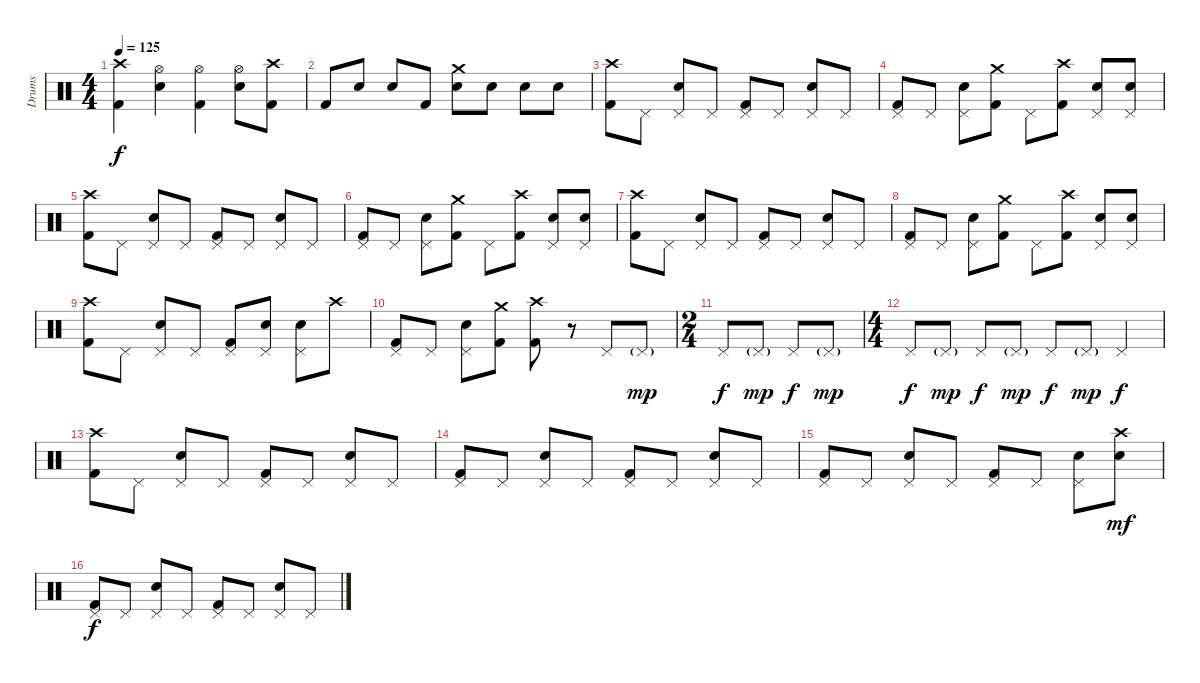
\track ("Drums" "Drums") {instrument percussion}
\staff {score}
\articulation defaults
\ts (4 4)
\tempo 125
\clef neutral
\ks c
("Crash high (hit)" "Kick (hit) 2").4{dy f} ("Hi-Hat (open)" "Snare (hit) 2").4 ("Hi-Hat (open)" "Kick (hit) 2").4 ("Hi-Hat (open)" "Snare (hit) 2").8 ("Crash high (hit)" "Kick (hit) 2").8 |
"Kick (hit) 2".8 "Snare (hit) 2".8 "Snare (hit) 2".8 "Kick (hit) 2".8 ("Crash medium (hit)" "Snare (hit) 2").8 "Snare (hit) 2".8 "Snare (hit) 2".8 "Snare (hit) 2".8 |
("Crash high (hit)" "Kick (hit) 2").8 "Pedal Hi-Hat (hit)".8 ("Pedal Hi-Hat (hit)" "Snare (hit) 2").8 "Pedal Hi-Hat (hit)".8 ("Pedal Hi-Hat (hit)" "Kick (hit) 2").8 "Pedal Hi-Hat (hit)".8 ("Pedal Hi-Hat (hit)" "Snare (hit) 2").8 "Pedal Hi-Hat (hit)".8 |
("Pedal Hi-Hat (hit)" "Kick (hit) 2").8 "Pedal Hi-Hat (hit)".8 ("Pedal Hi-Hat (hit)" "Snare (hit) 2").8 ("Crash medium (hit)" "Kick (hit) 2").8 "Pedal Hi-Hat (hit)".8 ("Crash high (hit)" "Kick (hit) 2").8 ("Pedal Hi-Hat (hit)" "Snare (hit) 2").8 ("Pedal Hi-Hat (hit)" "Snare (hit) 2").8 |
("Crash high (hit)" "Kick (hit) 2").8 "Pedal Hi-Hat (hit)".8 ("Pedal Hi-Hat (hit)" "Snare (hit) 2").8 "Pedal Hi-Hat (hit)".8 ("Pedal Hi-Hat (hit)" "Kick (hit) 2").8 "Pedal Hi-Hat (hit)".8 ("Pedal Hi-Hat (hit)" "Snare (hit) 2").8 "Pedal Hi-Hat (hit)".8 |
("Pedal Hi-Hat (hit)" "Kick (hit) 2").8 "Pedal Hi-Hat (hit)".8 ("Pedal Hi-Hat (hit)" "Snare (hit) 2").8 ("Crash medium (hit)" "Kick (hit) 2").8 "Pedal Hi-Hat (hit)".8 ("Crash high (hit)" "Kick (hit) 2").8 ("Pedal Hi-Hat (hit)" "Snare (hit) 2").8 ("Pedal Hi-Hat (hit)" "Snare (hit) 2").8 |
("Crash high (hit)" "Kick (hit) 2").8 "Pedal Hi-Hat (hit)".8 ("Pedal Hi-Hat (hit)" "Snare (hit) 2").8 "Pedal Hi-Hat (hit)".8 ("Pedal Hi-Hat (hit)" "Kick (hit) 2").8 "Pedal Hi-Hat (hit)".8 ("Pedal Hi-Hat (hit)" "Snare (hit) 2").8 "Pedal Hi-Hat (hit)".8 |
("Pedal Hi-Hat (hit)" "Kick (hit) 2").8 "Pedal Hi-Hat (hit)".8 ("Pedal Hi-Hat (hit)" "Snare (hit) 2").8 ("Crash medium (hit)" "Kick (hit) 2").8 "Pedal Hi-Hat (hit)".8 ("Crash high (hit)" "Kick (hit) 2").8 ("Pedal Hi-Hat (hit)" "Snare (hit) 2").8 ("Pedal Hi-Hat (hit)" "Snare (hit) 2").8 |
("Crash high (hit)" "Kick (hit) 2").8 "Pedal Hi-Hat (hit)".8 ("Pedal Hi-Hat (hit)" "Snare (hit) 2").8 "Pedal Hi-Hat (hit)".8 ("Pedal Hi-Hat (hit)" "Kick (hit) 2").8 ("Pedal Hi-Hat (hit)" "Snare (hit) 2").8 ("Pedal Hi-Hat (hit)" "Snare (hit) 2").8 "Crash high (hit)".8 |
("Pedal Hi-Hat (hit)" "Kick (hit) 2").8 "Pedal Hi-Hat (hit)".8 ("Pedal Hi-Hat (hit)" "Snare (hit) 2").8 ("Crash medium (hit)" "Kick (hit) 2").8 ("Crash high (hit)" "Kick (hit) 2").8 r.8 "Pedal Hi-Hat (hit)".8 "Pedal Hi-Hat (hit)"{g}.8{dy mp} |
\ts (2 4)
"Pedal Hi-Hat (hit)".8{dy f} "Pedal Hi-Hat (hit)"{g}.8{dy mp} "Pedal Hi-Hat (hit)".8{dy f} "Pedal Hi-Hat (hit)"{g}.8{dy mp} |
\ts (4 4)
"Pedal Hi-Hat (hit)".8{dy f} "Pedal Hi-Hat (hit)"{g}.8{dy mp} "Pedal Hi-Hat (hit)".8{dy f} "Pedal Hi-Hat (hit)"{g}.8{dy mp} "Pedal Hi-Hat (hit)".8{dy f} "Pedal Hi-Hat (hit)"{g}.8{dy mp} "Pedal Hi-Hat (hit)".4{dy f} |
("Crash high (hit)" "Kick (hit) 2").8 "Pedal Hi-Hat (hit)".8 ("Pedal Hi-Hat (hit)" "Snare (hit) 2").8 "Pedal Hi-Hat (hit)".8 ("Pedal Hi-Hat (hit)" "Kick (hit) 2").8 "Pedal Hi-Hat (hit)".8 ("Pedal Hi-Hat (hit)" "Snare (hit) 2").8 "Pedal Hi-Hat (hit)".8 |
("Pedal Hi-Hat (hit)" "Kick (hit) 2").8 "Pedal Hi-Hat (hit)".8 ("Pedal Hi-Hat (hit)" "Snare (hit) 2").8 "Pedal Hi-Hat (hit)".8 ("Pedal Hi-Hat (hit)" "Kick (hit) 2").8 "Pedal Hi-Hat (hit)".8 ("Pedal Hi-Hat (hit)" "Snare (hit) 2").8 "Pedal Hi-Hat (hit)".8 |
("Pedal Hi-Hat (hit)" "Kick (hit) 2").8 "Pedal Hi-Hat (hit)".8 ("Pedal Hi-Hat (hit)" "Snare (hit) 2").8 "Pedal Hi-Hat (hit)".8 ("Pedal Hi-Hat (hit)" "Kick (hit) 2").8 "Pedal Hi-Hat (hit)".8 ("Pedal Hi-Hat (hit)" "Snare (hit) 2").8 ("Crash high (hit)" "Snare (hit) 2").8{dy mf} |
("Pedal Hi-Hat (hit)" "Kick (hit) 2").8{dy f} "Pedal Hi-Hat (hit)".8 ("Pedal Hi-Hat (hit)" "Snare (hit) 2").8 "Pedal Hi-Hat (hit)".8 ("Pedal Hi-Hat (hit)" "Kick (hit) 2").8 "Pedal Hi-Hat (hit)".8 ("Pedal Hi-Hat (hit)" "Snare (hit) 2").8 "Pedal Hi-Hat (hit)".8
